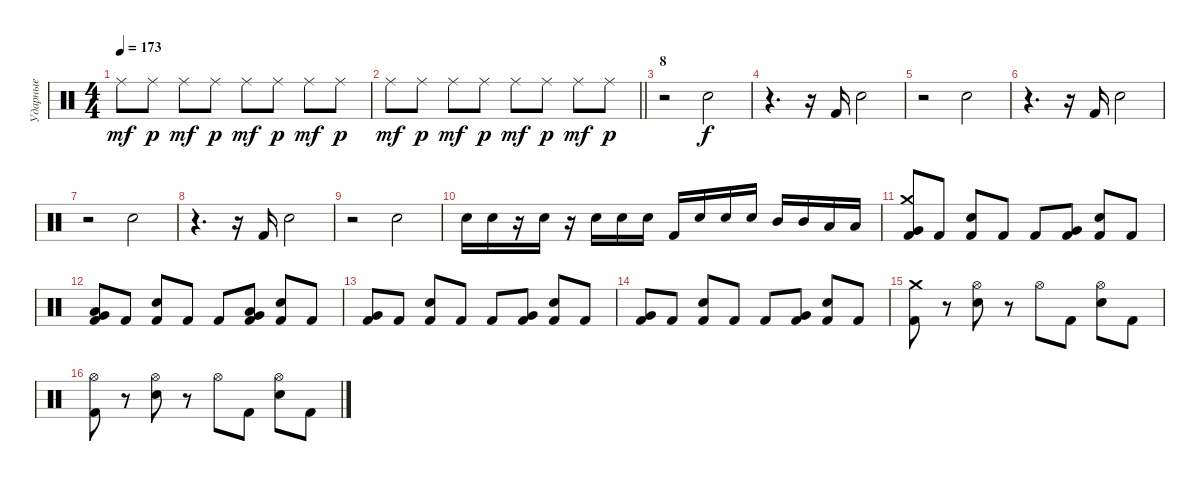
\track ("Ударные" "Ударные") {instrument percussion}
\staff {score}
\articulation defaults
\ts (4 4)
\tempo 173
\clef neutral
\ks c "Ride (middle)".8{dy mf} "Ride (middle)".8{dy p} "Ride (middle)".8{dy mf} "Ride (middle)".8{dy p} "Ride (middle)".8{dy mf} "Ride (middle)".8{dy p} "Ride (middle)".8{dy mf} "Ride (middle)".8{dy p}
|
\barLineRight lightlight "Ride (middle)".8{dy mf} "Ride (middle)".8{dy p} "Ride (middle)".8{dy mf} "Ride (middle)".8{dy p} "Ride (middle)".8{dy mf} "Ride (middle)".8{dy p} "Ride (middle)".8{dy mf} "Ride (middle)".8{dy p}
|
\section ("" "8")
r.2 "Snare (hit) 2".2{dy f} |
r.4{d} r.16 "Kick (hit) 2".16 "Snare (hit) 2".2 |
r.2 "Snare (hit) 2".2 |
r.4{d} r.16 "Kick (hit) 2".16 "Snare (hit) 2".2 |
r.2 "Snare (hit) 2".2 |
r.4{d} r.16 "Kick (hit) 2".16 "Snare (hit) 2".2 |
r.2 "Snare (hit) 2".2 |
"Snare (hit) 2".16 "Snare (hit) 2".16 r.16 "Snare (hit) 2".16 r.16 "Snare (hit) 2".16 "Snare (hit) 2".16 "Snare (hit) 2".16 "Kick (hit) 2".16 "Snare (hit) 2".16 "Snare (hit) 2".16 "Snare (hit) 2".16 "Mid Tom (hit)".16 "Mid Tom (hit)".16 "Low Tom (hit)".16 "Low Tom (hit)".16 |
("Crash medium (hit)" "Very Low Tom (hit)" "Kick (hit) 2").8 "Kick (hit) 2".8 ("Snare (hit) 2" "Kick (hit) 2").8 "Kick (hit) 2".8 "Kick (hit) 2".8 ("Very Low Tom (hit)" "Kick (hit) 2").8 ("Snare (hit) 2" "Kick (hit) 2").8 "Kick (hit) 2".8 |
("Low Floor Tom (hit)" "Very Low Tom (hit)" "Kick (hit) 2").8 "Kick (hit) 2".8 ("Snare (hit) 2" "Kick (hit) 2").8 "Kick (hit) 2".8 "Kick (hit) 2".8 ("Low Floor Tom (hit)" "Very Low Tom (hit)" "Kick (hit) 2").8 ("Snare (hit) 2" "Kick (hit) 2").8 "Kick (hit) 2".8 |
("Very Low Tom (hit)" "Kick (hit) 2").8 "Kick (hit) 2".8 ("Snare (hit) 2" "Kick (hit) 2").8 "Kick (hit) 2".8 "Kick (hit) 2".8 ("Very Low Tom (hit)" "Kick (hit) 2").8 ("Snare (hit) 2" "Kick (hit) 2").8 "Kick (hit) 2".8 |
("Very Low Tom (hit)" "Kick (hit) 2").8 "Kick (hit) 2".8 ("Snare (hit) 2" "Kick (hit) 2").8 "Kick (hit) 2".8 "Kick (hit) 2".8 ("Very Low Tom (hit)" "Kick (hit) 2").8 ("Snare (hit) 2" "Kick (hit) 2").8 "Kick (hit) 2".8 |
("Crash medium (hit)" "Kick (hit) 2").8 r.8 ("Hi-Hat (open)" "Snare (hit) 2").8 r.8 "Hi-Hat (open)".8 "Kick (hit) 2".8 ("Hi-Hat (open)" "Snare (hit) 2").8 "Kick (hit) 2".8 |
("Hi-Hat (open)" "Kick (hit) 2").8 r.8 ("Hi-Hat (open)" "Snare (hit) 2").8 r.8 "Hi-Hat (open)".8 "Kick (hit) 2".8 ("Hi-Hat (open)" "Snare (hit) 2").8 "Kick (hit) 2".8
